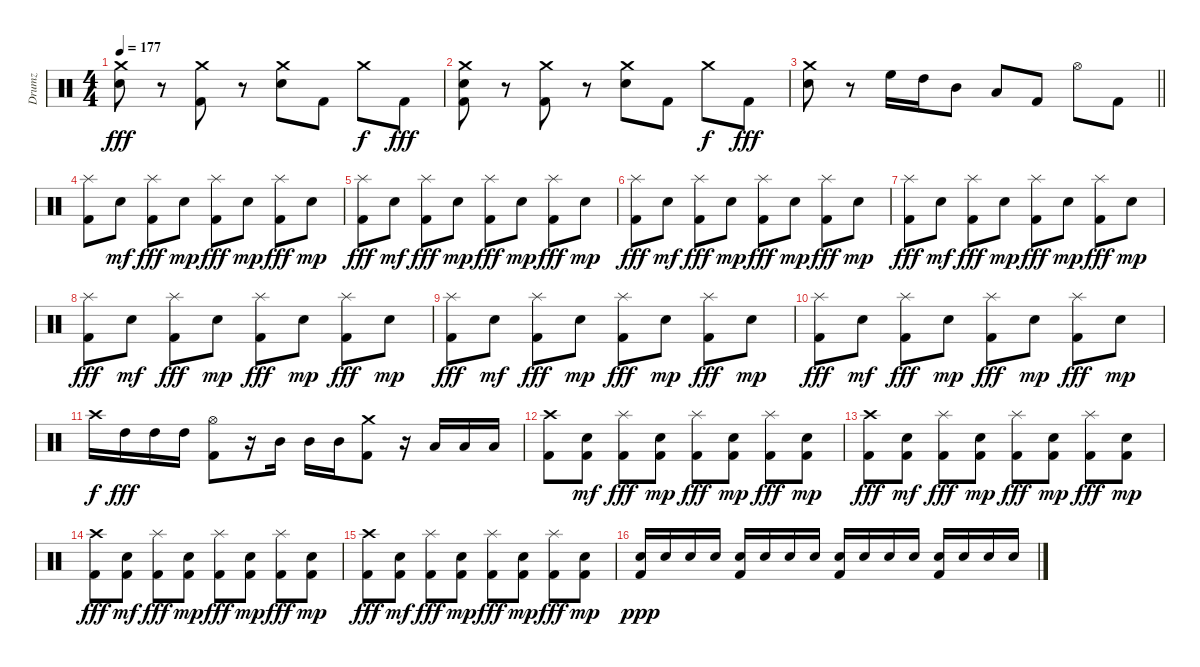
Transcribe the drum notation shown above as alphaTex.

\track ("Drumz" "Drumz") {instrument percussion}
\staff {score}
\articulation defaults
\ts (4 4)
\tempo 177
\clef neutral
\ks c
("Crash medium (hit)" "Snare (hit) 2").8{dy fff} r.8 ("Crash medium (hit)" "Kick (hit) 2").8 r.8 ("Crash medium (hit)" "Snare (hit) 2").8 "Kick (hit) 2".8 "Crash medium (hit)".8{dy f} "Kick (hit) 2".8{dy fff} |
("Crash medium (hit)" "Snare (hit) 2" "Kick (hit) 2").8 r.8 ("Crash medium (hit)" "Kick (hit) 2").8 r.8 ("Crash medium (hit)" "Snare (hit) 2").8 "Kick (hit) 2".8 "Crash medium (hit)".8{dy f} "Kick (hit) 2".8{dy fff} |
\barLineRight lightlight
("Crash medium (hit)" "Snare (hit) 2").8 r.8 "High Floor Tom (hit)".16 "High Tom (hit)".16 "Mid Tom (hit)".8 "Low Tom (hit)".8 "Kick (hit) 2".8 "Hi-Hat (open)".8 "Kick (hit) 2".8 |
("Splash (hit)" "Kick (hit) 2").8 "Snare (hit) 2".8{dy mf} ("Splash (hit)" "Kick (hit) 2").8{dy fff} "Snare (hit) 2".8{dy mp} ("Splash (hit)" "Kick (hit) 2").8{dy fff} "Snare (hit) 2".8{dy mp} ("Splash (hit)" "Kick (hit) 2").8{dy fff} "Snare (hit) 2".8{dy mp} |
("Splash (hit)" "Kick (hit) 2").8{dy fff} "Snare (hit) 2".8{dy mf} ("Splash (hit)" "Kick (hit) 2").8{dy fff} "Snare (hit) 2".8{dy mp} ("Splash (hit)" "Kick (hit) 2").8{dy fff} "Snare (hit) 2".8{dy mp} ("Splash (hit)" "Kick (hit) 2").8{dy fff} "Snare (hit) 2".8{dy mp} |
("Splash (hit)" "Kick (hit) 2").8{dy fff} "Snare (hit) 2".8{dy mf} ("Splash (hit)" "Kick (hit) 2").8{dy fff} "Snare (hit) 2".8{dy mp} ("Splash (hit)" "Kick (hit) 2").8{dy fff} "Snare (hit) 2".8{dy mp} ("Splash (hit)" "Kick (hit) 2").8{dy fff} "Snare (hit) 2".8{dy mp} |
("Splash (hit)" "Kick (hit) 2").8{dy fff} "Snare (hit) 2".8{dy mf} ("Splash (hit)" "Kick (hit) 2").8{dy fff} "Snare (hit) 2".8{dy mp} ("Splash (hit)" "Kick (hit) 2").8{dy fff} "Snare (hit) 2".8{dy mp} ("Splash (hit)" "Kick (hit) 2").8{dy fff} "Snare (hit) 2".8{dy mp} |
("Splash (hit)" "Kick (hit) 2").8{dy fff} "Snare (hit) 2".8{dy mf} ("Splash (hit)" "Kick (hit) 2").8{dy fff} "Snare (hit) 2".8{dy mp} ("Splash (hit)" "Kick (hit) 2").8{dy fff} "Snare (hit) 2".8{dy mp} ("Splash (hit)" "Kick (hit) 2").8{dy fff} "Snare (hit) 2".8{dy mp} |
("Splash (hit)" "Kick (hit) 2").8{dy fff} "Snare (hit) 2".8{dy mf} ("Splash (hit)" "Kick (hit) 2").8{dy fff} "Snare (hit) 2".8{dy mp} ("Splash (hit)" "Kick (hit) 2").8{dy fff} "Snare (hit) 2".8{dy mp} ("Splash (hit)" "Kick (hit) 2").8{dy fff} "Snare (hit) 2".8{dy mp} |
("Splash (hit)" "Kick (hit) 2").8{dy fff} "Snare (hit) 2".8{dy mf} ("Splash (hit)" "Kick (hit) 2").8{dy fff} "Snare (hit) 2".8{dy mp} ("Splash (hit)" "Kick (hit) 2").8{dy fff} "Snare (hit) 2".8{dy mp} ("Splash (hit)" "Kick (hit) 2").8{dy fff} "Snare (hit) 2".8{dy mp} |
"Crash high (hit)".16{dy f} "High Tom (hit)".16{dy fff} "High Tom (hit)".16 "High Tom (hit)".16 ("Kick (hit) 2" "Hi-Hat (open)").8 r.16 "Mid Tom (hit)".16 "Mid Tom (hit)".16 "Mid Tom (hit)".16 ("Kick (hit) 2" "Crash medium (hit)").8 r.16 "Low Tom (hit)".16 "Low Tom (hit)".16 "Low Tom (hit)".16 |
("Kick (hit) 2" "Crash high (hit)").8 ("Kick (hit) 2" "Snare (hit) 2").8{dy mf} ("Splash (hit)" "Kick (hit) 2").8{dy fff} ("Kick (hit) 2" "Snare (hit) 2").8{dy mp} ("Splash (hit)" "Kick (hit) 2").8{dy fff} ("Kick (hit) 2" "Snare (hit) 2").8{dy mp} ("Splash (hit)" "Kick (hit) 2").8{dy fff} ("Kick (hit) 2" "Snare (hit) 2").8{dy mp} |
("Kick (hit) 2" "Crash high (hit)").8{dy fff} ("Kick (hit) 2" "Snare (hit) 2").8{dy mf} ("Splash (hit)" "Kick (hit) 2").8{dy fff} ("Kick (hit) 2" "Snare (hit) 2").8{dy mp} ("Splash (hit)" "Kick (hit) 2").8{dy fff} ("Kick (hit) 2" "Snare (hit) 2").8{dy mp} ("Splash (hit)" "Kick (hit) 2").8{dy fff} ("Kick (hit) 2" "Snare (hit) 2").8{dy mp} |
("Kick (hit) 2" "Crash high (hit)").8{dy fff} ("Kick (hit) 2" "Snare (hit) 2").8{dy mf} ("Splash (hit)" "Kick (hit) 2").8{dy fff} ("Kick (hit) 2" "Snare (hit) 2").8{dy mp} ("Splash (hit)" "Kick (hit) 2").8{dy fff} ("Kick (hit) 2" "Snare (hit) 2").8{dy mp} ("Splash (hit)" "Kick (hit) 2").8{dy fff} ("Kick (hit) 2" "Snare (hit) 2").8{dy mp} |
("Kick (hit) 2" "Crash high (hit)").8{dy fff} ("Kick (hit) 2" "Snare (hit) 2").8{dy mf} ("Splash (hit)" "Kick (hit) 2").8{dy fff} ("Kick (hit) 2" "Snare (hit) 2").8{dy mp} ("Splash (hit)" "Kick (hit) 2").8{dy fff} ("Kick (hit) 2" "Snare (hit) 2").8{dy mp} ("Splash (hit)" "Kick (hit) 2").8{dy fff} ("Kick (hit) 2" "Snare (hit) 2").8{dy mp} |
("Snare (hit) 2" "Kick (hit) 2").16{dy ppp} "Snare (hit) 2".16 "Snare (hit) 2".16 "Snare (hit) 2".16 ("Snare (hit) 2" "Kick (hit) 2").16 "Snare (hit) 2".16 "Snare (hit) 2".16 "Snare (hit) 2".16 ("Snare (hit) 2" "Kick (hit) 2").16 "Snare (hit) 2".16 "Snare (hit) 2".16 "Snare (hit) 2".16 ("Kick (hit) 2" "Snare (hit) 2").16 "Snare (hit) 2".16 "Snare (hit) 2".16 "Snare (hit) 2".16
